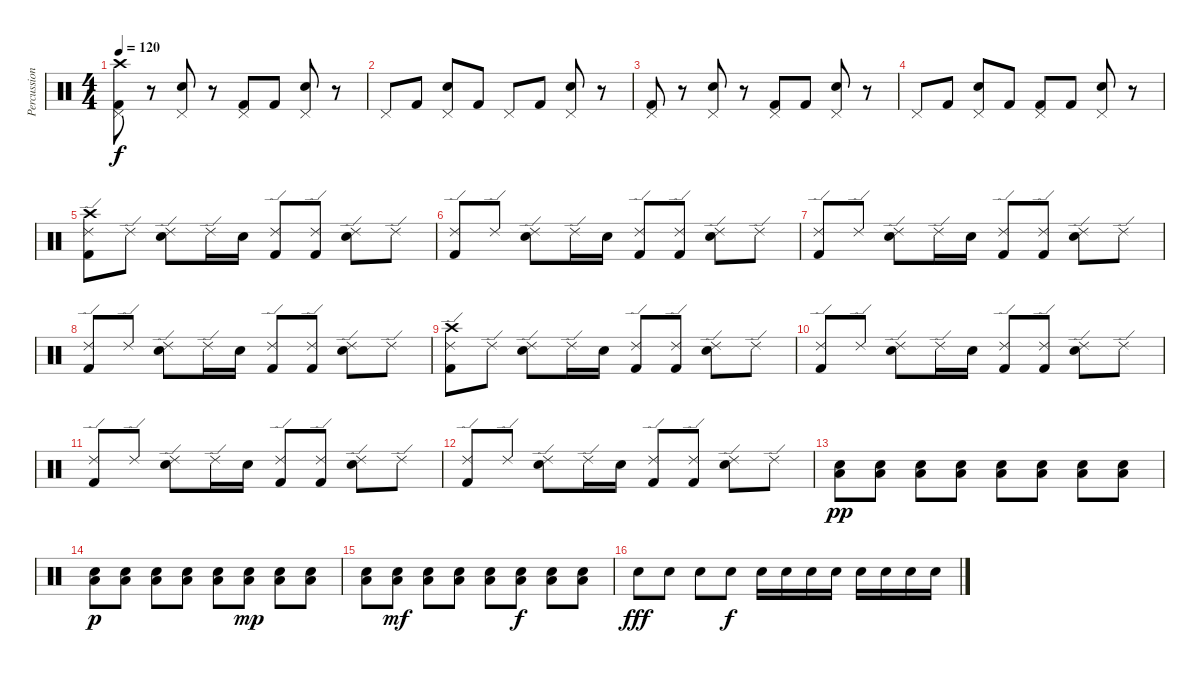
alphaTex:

\track ("Percussion" "Percussion") {instrument percussion}
\staff {score}
\articulation defaults
\ts (4 4)
\tempo 120
\clef neutral
\ks c
("Crash high (hit)" "Kick (hit) 2" "Pedal Hi-Hat (hit)").8{dy f} r.8 ("Electric Snare (hit)" "Pedal Hi-Hat (hit)").8 r.8 ("Kick (hit) 2" "Pedal Hi-Hat (hit)").8 "Kick (hit) 2".8 ("Electric Snare (hit)" "Pedal Hi-Hat (hit)").8 r.8 |
"Pedal Hi-Hat (hit)".8 "Kick (hit) 2".8 ("Electric Snare (hit)" "Pedal Hi-Hat (hit)").8 "Kick (hit) 2".8 "Pedal Hi-Hat (hit)".8 "Kick (hit) 2".8 ("Electric Snare (hit)" "Pedal Hi-Hat (hit)").8 r.8 |
("Kick (hit) 2" "Pedal Hi-Hat (hit)").8 r.8 ("Electric Snare (hit)" "Pedal Hi-Hat (hit)").8 r.8 ("Kick (hit) 2" "Pedal Hi-Hat (hit)").8 "Kick (hit) 2".8 ("Electric Snare (hit)" "Pedal Hi-Hat (hit)").8 r.8 |
"Pedal Hi-Hat (hit)".8 "Kick (hit) 2".8 ("Electric Snare (hit)" "Pedal Hi-Hat (hit)").8 "Kick (hit) 2".8 ("Kick (hit) 2" "Pedal Hi-Hat (hit)").8 "Kick (hit) 2".8 ("Electric Snare (hit)" "Pedal Hi-Hat (hit)").8 r.8 |
("Crash high (hit)" "Kick (hit) 2" "Ride (edge) 2").8 "Ride (edge) 2".8 ("Electric Snare (hit)" "Ride (edge) 2").8 "Ride (edge) 2".16 "Electric Snare (hit)".16 ("Kick (hit) 2" "Ride (edge) 2").8 ("Kick (hit) 2" "Ride (edge) 2").8 ("Electric Snare (hit)" "Ride (edge) 2").8 "Ride (edge) 2".8 |
("Kick (hit) 2" "Ride (edge) 2").8 "Ride (edge) 2".8 ("Electric Snare (hit)" "Ride (edge) 2").8 "Ride (edge) 2".16 "Electric Snare (hit)".16 ("Kick (hit) 2" "Ride (edge) 2").8 ("Kick (hit) 2" "Ride (edge) 2").8 ("Electric Snare (hit)" "Ride (edge) 2").8 "Ride (edge) 2".8 |
("Kick (hit) 2" "Ride (edge) 2").8 "Ride (edge) 2".8 ("Electric Snare (hit)" "Ride (edge) 2").8 "Ride (edge) 2".16 "Electric Snare (hit)".16 ("Kick (hit) 2" "Ride (edge) 2").8 ("Kick (hit) 2" "Ride (edge) 2").8 ("Electric Snare (hit)" "Ride (edge) 2").8 "Ride (edge) 2".8 |
("Kick (hit) 2" "Ride (edge) 2").8 "Ride (edge) 2".8 ("Electric Snare (hit)" "Ride (edge) 2").8 "Ride (edge) 2".16 "Electric Snare (hit)".16 ("Kick (hit) 2" "Ride (edge) 2").8 ("Kick (hit) 2" "Ride (edge) 2").8 ("Electric Snare (hit)" "Ride (edge) 2").8 "Ride (edge) 2".8 |
("Crash high (hit)" "Kick (hit) 2" "Ride (edge) 2").8 "Ride (edge) 2".8 ("Electric Snare (hit)" "Ride (edge) 2").8 "Ride (edge) 2".16 "Electric Snare (hit)".16 ("Kick (hit) 2" "Ride (edge) 2").8 ("Kick (hit) 2" "Ride (edge) 2").8 ("Electric Snare (hit)" "Ride (edge) 2").8 "Ride (edge) 2".8 |
("Kick (hit) 2" "Ride (edge) 2").8 "Ride (edge) 2".8 ("Electric Snare (hit)" "Ride (edge) 2").8 "Ride (edge) 2".16 "Electric Snare (hit)".16 ("Kick (hit) 2" "Ride (edge) 2").8 ("Kick (hit) 2" "Ride (edge) 2").8 ("Electric Snare (hit)" "Ride (edge) 2").8 "Ride (edge) 2".8 |
("Kick (hit) 2" "Ride (edge) 2").8 "Ride (edge) 2".8 ("Electric Snare (hit)" "Ride (edge) 2").8 "Ride (edge) 2".16 "Electric Snare (hit)".16 ("Kick (hit) 2" "Ride (edge) 2").8 ("Kick (hit) 2" "Ride (edge) 2").8 ("Electric Snare (hit)" "Ride (edge) 2").8 "Ride (edge) 2".8 |
("Kick (hit) 2" "Ride (edge) 2").8 "Ride (edge) 2".8 ("Electric Snare (hit)" "Ride (edge) 2").8 "Ride (edge) 2".16 "Electric Snare (hit)".16 ("Kick (hit) 2" "Ride (edge) 2").8 ("Kick (hit) 2" "Ride (edge) 2").8 ("Electric Snare (hit)" "Ride (edge) 2").8 "Ride (edge) 2".8 |
("Electric Snare (hit)" "Low Floor Tom (hit)").8{dy pp} ("Electric Snare (hit)" "Low Floor Tom (hit)").8 ("Electric Snare (hit)" "Low Floor Tom (hit)").8 ("Electric Snare (hit)" "Low Floor Tom (hit)").8 ("Electric Snare (hit)" "Low Floor Tom (hit)").8 ("Electric Snare (hit)" "Low Floor Tom (hit)").8 ("Electric Snare (hit)" "Low Floor Tom (hit)").8 ("Electric Snare (hit)" "Low Floor Tom (hit)").8 |
("Electric Snare (hit)" "Low Floor Tom (hit)").8{dy p} ("Electric Snare (hit)" "Low Floor Tom (hit)").8 ("Electric Snare (hit)" "Low Floor Tom (hit)").8 ("Electric Snare (hit)" "Low Floor Tom (hit)").8 ("Electric Snare (hit)" "Low Floor Tom (hit)").8 ("Electric Snare (hit)" "Low Floor Tom (hit)").8{dy mp} ("Electric Snare (hit)" "Low Floor Tom (hit)").8 ("Electric Snare (hit)" "Low Floor Tom (hit)").8 |
("Electric Snare (hit)" "Low Floor Tom (hit)").8 ("Electric Snare (hit)" "Low Floor Tom (hit)").8{dy mf} ("Electric Snare (hit)" "Low Floor Tom (hit)").8 ("Electric Snare (hit)" "Low Floor Tom (hit)").8 ("Electric Snare (hit)" "Low Floor Tom (hit)").8 ("Electric Snare (hit)" "Low Floor Tom (hit)").8{dy f} ("Electric Snare (hit)" "Low Floor Tom (hit)").8 ("Electric Snare (hit)" "Low Floor Tom (hit)").8 |
"Electric Snare (hit)".8{dy fff} "Electric Snare (hit)".8 "Electric Snare (hit)".8 "Electric Snare (hit)".8{dy f} "Electric Snare (hit)".16 "Electric Snare (hit)".16 "Electric Snare (hit)".16 "Electric Snare (hit)".16 "Electric Snare (hit)".16 "Electric Snare (hit)".16 "Electric Snare (hit)".16 "Electric Snare (hit)".16
